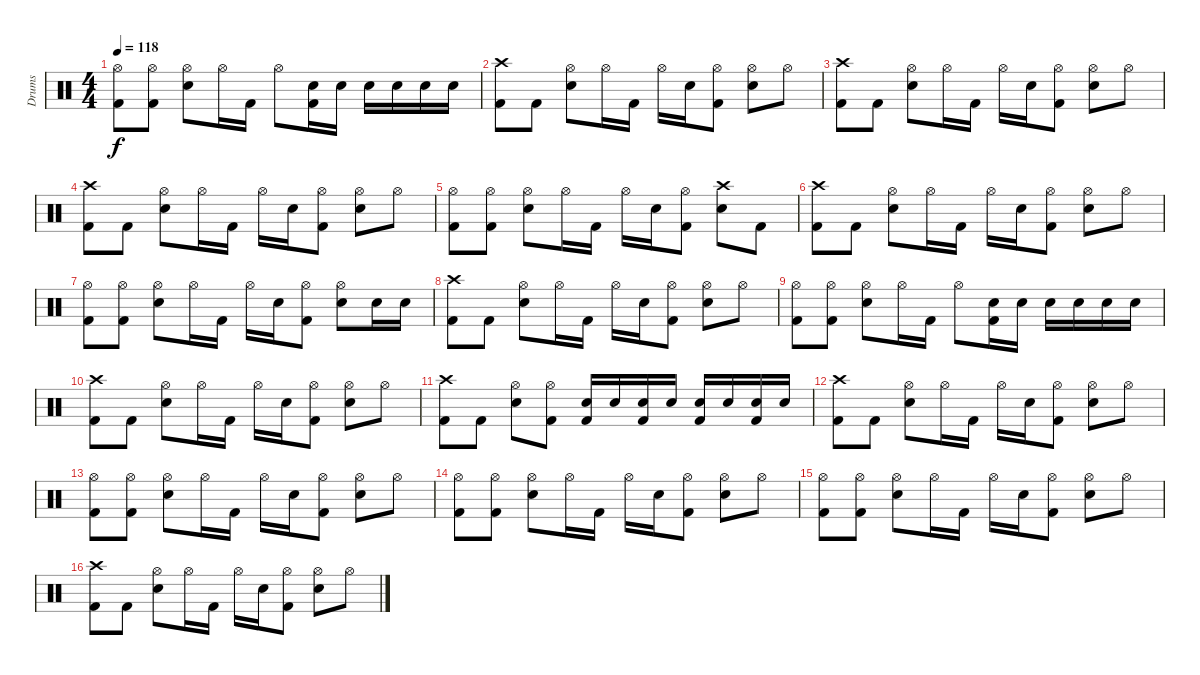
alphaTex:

\track ("Drums" "Drums") {instrument percussion}
\staff {score}
\articulation defaults
\ts (4 4)
\tempo 118
\clef neutral
\ks c
("Hi-Hat (open)" "Kick (hit) 2").8{dy f} ("Hi-Hat (open)" "Kick (hit) 2").8 ("Hi-Hat (open)" "Electric Snare (hit)").8 "Hi-Hat (open)".16 "Kick (hit) 2".16 "Hi-Hat (open)".8 ("Electric Snare (hit)" "Kick (hit) 2").16 "Electric Snare (hit)".16 "Electric Snare (hit)".16 "Electric Snare (hit)".16 "Electric Snare (hit)".16 "Electric Snare (hit)".16 |
("Crash high (hit)" "Kick (hit) 2").8 "Kick (hit) 2".8 ("Hi-Hat (open)" "Electric Snare (hit)").8 "Hi-Hat (open)".16 "Kick (hit) 2".16 "Hi-Hat (open)".16 "Electric Snare (hit)".16 ("Hi-Hat (open)" "Kick (hit) 2").8 ("Hi-Hat (open)" "Electric Snare (hit)").8 "Hi-Hat (open)".8 |
("Crash high (hit)" "Kick (hit) 2").8 "Kick (hit) 2".8 ("Hi-Hat (open)" "Electric Snare (hit)").8 "Hi-Hat (open)".16 "Kick (hit) 2".16 "Hi-Hat (open)".16 "Electric Snare (hit)".16 ("Hi-Hat (open)" "Kick (hit) 2").8 ("Hi-Hat (open)" "Electric Snare (hit)").8 "Hi-Hat (open)".8 |
("Crash high (hit)" "Kick (hit) 2").8 "Kick (hit) 2".8 ("Hi-Hat (open)" "Electric Snare (hit)").8 "Hi-Hat (open)".16 "Kick (hit) 2".16 "Hi-Hat (open)".16 "Electric Snare (hit)".16 ("Hi-Hat (open)" "Kick (hit) 2").8 ("Hi-Hat (open)" "Electric Snare (hit)").8 "Hi-Hat (open)".8 |
("Hi-Hat (open)" "Kick (hit) 2").8 ("Hi-Hat (open)" "Kick (hit) 2").8 ("Hi-Hat (open)" "Electric Snare (hit)").8 "Hi-Hat (open)".16 "Kick (hit) 2".16 "Hi-Hat (open)".16 "Electric Snare (hit)".16 ("Hi-Hat (open)" "Kick (hit) 2").8 ("Crash high (hit)" "Electric Snare (hit)").8 "Kick (hit) 2".8 |
("Crash high (hit)" "Kick (hit) 2").8 "Kick (hit) 2".8 ("Hi-Hat (open)" "Electric Snare (hit)").8 "Hi-Hat (open)".16 "Kick (hit) 2".16 "Hi-Hat (open)".16 "Electric Snare (hit)".16 ("Hi-Hat (open)" "Kick (hit) 2").8 ("Hi-Hat (open)" "Electric Snare (hit)").8 "Hi-Hat (open)".8 |
("Hi-Hat (open)" "Kick (hit) 2").8 ("Hi-Hat (open)" "Kick (hit) 2").8 ("Hi-Hat (open)" "Electric Snare (hit)").8 "Hi-Hat (open)".16 "Kick (hit) 2".16 "Hi-Hat (open)".16 "Electric Snare (hit)".16 ("Hi-Hat (open)" "Kick (hit) 2").8 ("Hi-Hat (open)" "Electric Snare (hit)").8 "Electric Snare (hit)".16 "Electric Snare (hit)".16 |
("Crash high (hit)" "Kick (hit) 2").8 "Kick (hit) 2".8 ("Hi-Hat (open)" "Electric Snare (hit)").8 "Hi-Hat (open)".16 "Kick (hit) 2".16 "Hi-Hat (open)".16 "Electric Snare (hit)".16 ("Hi-Hat (open)" "Kick (hit) 2").8 ("Hi-Hat (open)" "Electric Snare (hit)").8 "Hi-Hat (open)".8 |
("Hi-Hat (open)" "Kick (hit) 2").8 ("Hi-Hat (open)" "Kick (hit) 2").8 ("Hi-Hat (open)" "Electric Snare (hit)").8 "Hi-Hat (open)".16 "Kick (hit) 2".16 "Hi-Hat (open)".8 ("Electric Snare (hit)" "Kick (hit) 2").16 "Electric Snare (hit)".16 "Electric Snare (hit)".16 "Electric Snare (hit)".16 "Electric Snare (hit)".16 "Electric Snare (hit)".16 |
("Crash high (hit)" "Kick (hit) 2").8 "Kick (hit) 2".8 ("Hi-Hat (open)" "Electric Snare (hit)").8 "Hi-Hat (open)".16 "Kick (hit) 2".16 "Hi-Hat (open)".16 "Electric Snare (hit)".16 ("Hi-Hat (open)" "Kick (hit) 2").8 ("Hi-Hat (open)" "Electric Snare (hit)").8 "Hi-Hat (open)".8 |
("Crash high (hit)" "Kick (hit) 2").8 "Kick (hit) 2".8 ("Hi-Hat (open)" "Electric Snare (hit)").8 ("Hi-Hat (open)" "Kick (hit) 2").8 ("Electric Snare (hit)" "Kick (hit) 2").16 "Electric Snare (hit)".16 ("Electric Snare (hit)" "Kick (hit) 2").16 "Electric Snare (hit)".16 ("Electric Snare (hit)" "Kick (hit) 2").16 "Electric Snare (hit)".16 ("Electric Snare (hit)" "Kick (hit) 2").16 "Electric Snare (hit)".16 |
("Crash high (hit)" "Kick (hit) 2").8 "Kick (hit) 2".8 ("Hi-Hat (open)" "Electric Snare (hit)").8 "Hi-Hat (open)".16 "Kick (hit) 2".16 "Hi-Hat (open)".16 "Electric Snare (hit)".16 ("Hi-Hat (open)" "Kick (hit) 2").8 ("Hi-Hat (open)" "Electric Snare (hit)").8 "Hi-Hat (open)".8 |
("Hi-Hat (open)" "Kick (hit) 2").8 ("Hi-Hat (open)" "Kick (hit) 2").8 ("Hi-Hat (open)" "Electric Snare (hit)").8 "Hi-Hat (open)".16 "Kick (hit) 2".16 "Hi-Hat (open)".16 "Electric Snare (hit)".16 ("Hi-Hat (open)" "Kick (hit) 2").8 ("Hi-Hat (open)" "Electric Snare (hit)").8 "Hi-Hat (open)".8 |
("Hi-Hat (open)" "Kick (hit) 2").8 ("Hi-Hat (open)" "Kick (hit) 2").8 ("Hi-Hat (open)" "Electric Snare (hit)").8 "Hi-Hat (open)".16 "Kick (hit) 2".16 "Hi-Hat (open)".16 "Electric Snare (hit)".16 ("Hi-Hat (open)" "Kick (hit) 2").8 ("Hi-Hat (open)" "Electric Snare (hit)").8 "Hi-Hat (open)".8 |
("Hi-Hat (open)" "Kick (hit) 2").8 ("Hi-Hat (open)" "Kick (hit) 2").8 ("Hi-Hat (open)" "Electric Snare (hit)").8 "Hi-Hat (open)".16 "Kick (hit) 2".16 "Hi-Hat (open)".16 "Electric Snare (hit)".16 ("Hi-Hat (open)" "Kick (hit) 2").8 ("Hi-Hat (open)" "Electric Snare (hit)").8 "Hi-Hat (open)".8 |
("Crash high (hit)" "Kick (hit) 2").8 "Kick (hit) 2".8 ("Hi-Hat (open)" "Electric Snare (hit)").8 "Hi-Hat (open)".16 "Kick (hit) 2".16 "Hi-Hat (open)".16 "Electric Snare (hit)".16 ("Hi-Hat (open)" "Kick (hit) 2").8 ("Hi-Hat (open)" "Electric Snare (hit)").8 "Hi-Hat (open)".8
